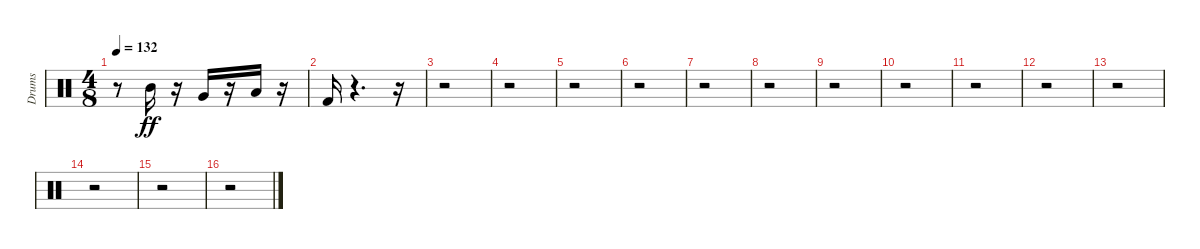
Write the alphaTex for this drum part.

\track ("Drums" "Drums") {instrument percussion}
\staff {score}
\articulation defaults
\ts (4 8)
\tempo 132
\clef neutral
\ks c
r.8{dy fff} "Mid Tom (hit)".16{dy ff} r.16 "Very Low Tom (hit)".16 r.16 "Low Floor Tom (hit)".16 r.16 |
"Kick (hit) 2".16 r.4{d} r.16 |
r.2 |
r.2 |
r.2 |
r.2 |
r.2 |
r.2 |
r.2 |
r.2 |
r.2 |
r.2 |
r.2 |
r.2 |
r.2 |
r.2
